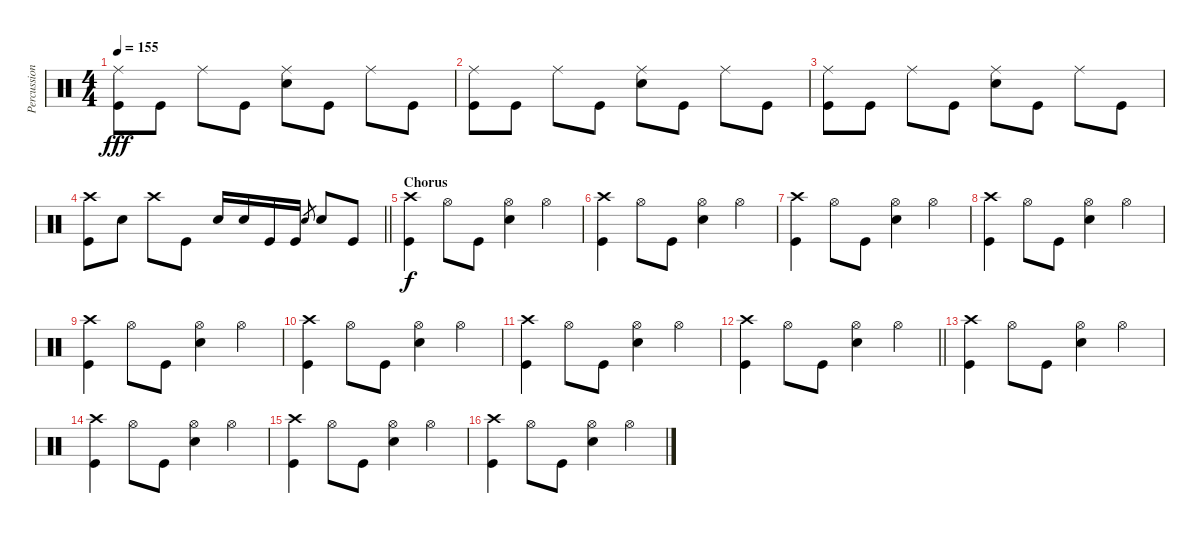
\track ("Percussion" "Percussion") {instrument percussion}
\staff {score}
\articulation defaults
\ts (4 4)
\tempo 155
\clef neutral
\ks c
("Ride (middle)" "Kick (hit)").8{dy fff} "Kick (hit)".8 "Ride (middle)".8 "Kick (hit)".8 ("Ride (middle)" "Electric Snare (hit)").8 "Kick (hit)".8 "Ride (middle)".8 "Kick (hit)".8 |
("Ride (middle)" "Kick (hit)").8 "Kick (hit)".8 "Ride (middle)".8 "Kick (hit)".8 ("Ride (middle)" "Electric Snare (hit)").8 "Kick (hit)".8 "Ride (middle)".8 "Kick (hit)".8 |
("Ride (middle)" "Kick (hit)").8 "Kick (hit)".8 "Ride (middle)".8 "Kick (hit)".8 ("Ride (middle)" "Electric Snare (hit)").8 "Kick (hit)".8 "Ride (middle)".8 "Kick (hit)".8 |
\barLineRight lightlight
("Crash high (hit)" "Kick (hit)").8 "Electric Snare (hit)".8 "Crash high (hit)".8 "Kick (hit)".8 "Electric Snare (hit)".16 "Electric Snare (hit)".16 "Kick (hit)".16 "Kick (hit)".16 "Electric Snare (hit)".8{gr} "Electric Snare (hit)".8 "Kick (hit)".8 |
\section ("" "Chorus")
("Crash high (hit)" "Kick (hit)").4{dy f} "Hi-Hat (open)".8 "Kick (hit)".8 ("Hi-Hat (open)" "Electric Snare (hit)").4 "Hi-Hat (open)".4 |
("Crash high (hit)" "Kick (hit)").4 "Hi-Hat (open)".8 "Kick (hit)".8 ("Hi-Hat (open)" "Electric Snare (hit)").4 "Hi-Hat (open)".4 |
("Crash high (hit)" "Kick (hit)").4 "Hi-Hat (open)".8 "Kick (hit)".8 ("Hi-Hat (open)" "Electric Snare (hit)").4 "Hi-Hat (open)".4 |
("Crash high (hit)" "Kick (hit)").4 "Hi-Hat (open)".8 "Kick (hit)".8 ("Hi-Hat (open)" "Electric Snare (hit)").4 "Hi-Hat (open)".4 |
("Crash high (hit)" "Kick (hit)").4 "Hi-Hat (open)".8 "Kick (hit)".8 ("Hi-Hat (open)" "Electric Snare (hit)").4 "Hi-Hat (open)".4 |
("Crash high (hit)" "Kick (hit)").4 "Hi-Hat (open)".8 "Kick (hit)".8 ("Hi-Hat (open)" "Electric Snare (hit)").4 "Hi-Hat (open)".4 |
("Crash high (hit)" "Kick (hit)").4 "Hi-Hat (open)".8 "Kick (hit)".8 ("Hi-Hat (open)" "Electric Snare (hit)").4 "Hi-Hat (open)".4 |
\barLineRight lightlight
("Crash high (hit)" "Kick (hit)").4 "Hi-Hat (open)".8 "Kick (hit)".8 ("Hi-Hat (open)" "Electric Snare (hit)").4 "Hi-Hat (open)".4 |
("Crash high (hit)" "Kick (hit)").4 "Hi-Hat (open)".8 "Kick (hit)".8 ("Hi-Hat (open)" "Electric Snare (hit)").4 "Hi-Hat (open)".4 |
("Crash high (hit)" "Kick (hit)").4 "Hi-Hat (open)".8 "Kick (hit)".8 ("Hi-Hat (open)" "Electric Snare (hit)").4 "Hi-Hat (open)".4 |
("Crash high (hit)" "Kick (hit)").4 "Hi-Hat (open)".8 "Kick (hit)".8 ("Hi-Hat (open)" "Electric Snare (hit)").4 "Hi-Hat (open)".4 |
("Crash high (hit)" "Kick (hit)").4 "Hi-Hat (open)".8 "Kick (hit)".8 ("Hi-Hat (open)" "Electric Snare (hit)").4 "Hi-Hat (open)".4
